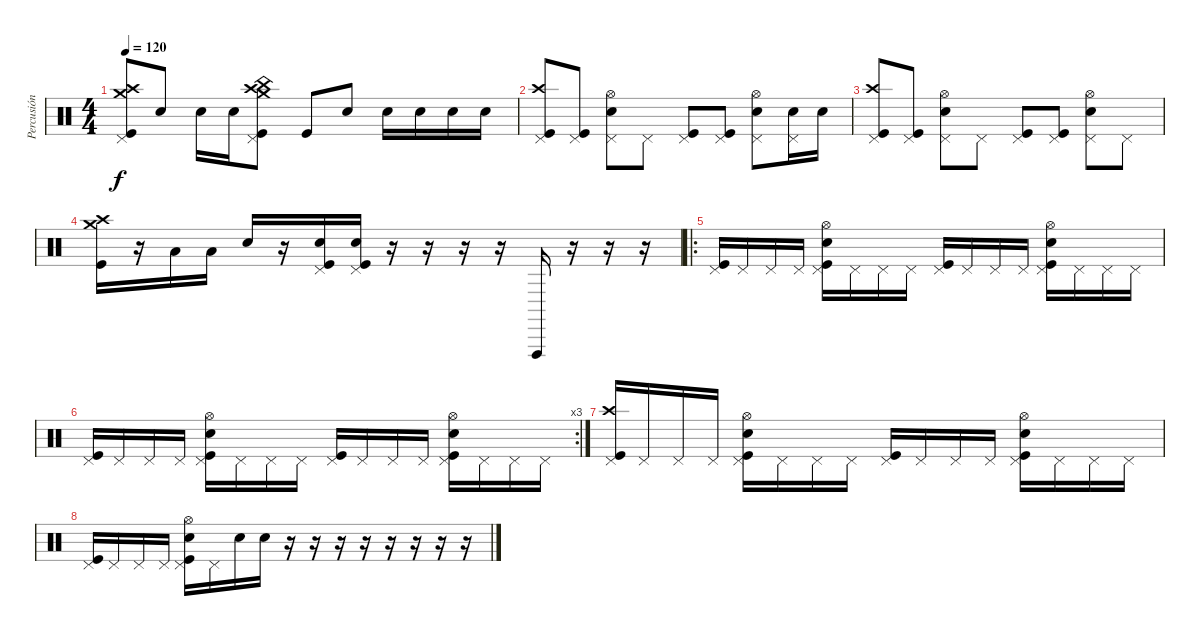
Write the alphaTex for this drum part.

\track ("Percusión" "Percusión") {instrument percussion}
\staff {score}
\articulation defaults
\ts (4 4)
\tempo 120
\clef neutral
\ks c
("Pedal Hi-Hat (hit)" "Crash high (hit)" "Crash medium (hit)" "Kick (hit)").8{dy f volume 10} "Snare (hit) 2".8 "Snare (hit) 2".16 "Snare (hit) 2".16 ("Pedal Hi-Hat (hit)" "Crash medium (hit)" "China (hit)" "Crash high (hit)" "Kick (hit)").8 "Kick (hit)".8 "Snare (hit) 2".8 "Snare (hit) 2".16 "Snare (hit) 2".16 "Snare (hit) 2".16 "Snare (hit) 2".16 |
("Pedal Hi-Hat (hit)" "Crash high (hit)" "Kick (hit)").8 ("Pedal Hi-Hat (hit)" "Kick (hit)").8 ("Pedal Hi-Hat (hit)" "Hi-Hat (open)" "Snare (hit) 2").8 "Pedal Hi-Hat (hit)".8 ("Pedal Hi-Hat (hit)" "Kick (hit)").8 ("Pedal Hi-Hat (hit)" "Kick (hit)").8 ("Pedal Hi-Hat (hit)" "Hi-Hat (open)" "Snare (hit) 2").8 ("Pedal Hi-Hat (hit)" "Snare (hit) 2").16 "Snare (hit) 2".16 |
("Pedal Hi-Hat (hit)" "Crash high (hit)" "Kick (hit)").8 ("Pedal Hi-Hat (hit)" "Kick (hit)").8 ("Pedal Hi-Hat (hit)" "Hi-Hat (open)" "Snare (hit) 2").8 "Pedal Hi-Hat (hit)".8 ("Pedal Hi-Hat (hit)" "Kick (hit)").8 ("Pedal Hi-Hat (hit)" "Kick (hit)").8 ("Pedal Hi-Hat (hit)" "Hi-Hat (open)" "Snare (hit) 2").8 "Pedal Hi-Hat (hit)".8 |
("Crash high (hit)" "Crash medium (hit)" "Kick (hit)").16 r.16 "Low Tom (hit)".16 "Low Tom (hit)".16 "Snare (hit) 2".16 r.16 ("Pedal Hi-Hat (hit)" "Snare (hit) 2" "Kick (hit)").16 ("Pedal Hi-Hat (hit)" "Snare (hit) 2" "Kick (hit)").16 r.16 r.16 r.16 r.16 "Vibraslap (hit)".16 r.16 r.16 r.16 |
\ro
("Pedal Hi-Hat (hit)" "Kick (hit)").16 "Pedal Hi-Hat (hit)".16 "Pedal Hi-Hat (hit)".16 "Pedal Hi-Hat (hit)".16 ("Pedal Hi-Hat (hit)" "Hi-Hat (open)" "Snare (hit) 2" "Kick (hit)").16 "Pedal Hi-Hat (hit)".16 "Pedal Hi-Hat (hit)".16 "Pedal Hi-Hat (hit)".16 ("Pedal Hi-Hat (hit)" "Kick (hit)").16 "Pedal Hi-Hat (hit)".16 "Pedal Hi-Hat (hit)".16 "Pedal Hi-Hat (hit)".16 ("Pedal Hi-Hat (hit)" "Hi-Hat (open)" "Snare (hit) 2" "Kick (hit)").16 "Pedal Hi-Hat (hit)".16 "Pedal Hi-Hat (hit)".16 "Pedal Hi-Hat (hit)".16 |
\rc 3
("Pedal Hi-Hat (hit)" "Kick (hit)").16 "Pedal Hi-Hat (hit)".16 "Pedal Hi-Hat (hit)".16 "Pedal Hi-Hat (hit)".16 ("Pedal Hi-Hat (hit)" "Hi-Hat (open)" "Snare (hit) 2" "Kick (hit)").16 "Pedal Hi-Hat (hit)".16 "Pedal Hi-Hat (hit)".16 "Pedal Hi-Hat (hit)".16 ("Pedal Hi-Hat (hit)" "Kick (hit)").16 "Pedal Hi-Hat (hit)".16 "Pedal Hi-Hat (hit)".16 "Pedal Hi-Hat (hit)".16 ("Pedal Hi-Hat (hit)" "Hi-Hat (open)" "Snare (hit) 2" "Kick (hit)").16 "Pedal Hi-Hat (hit)".16 "Pedal Hi-Hat (hit)".16 "Pedal Hi-Hat (hit)".16 |
("Pedal Hi-Hat (hit)" "Crash high (hit)" "Kick (hit)").16 "Pedal Hi-Hat (hit)".16 "Pedal Hi-Hat (hit)".16 "Pedal Hi-Hat (hit)".16 ("Pedal Hi-Hat (hit)" "Hi-Hat (open)" "Snare (hit) 2" "Kick (hit)").16 "Pedal Hi-Hat (hit)".16 "Pedal Hi-Hat (hit)".16 "Pedal Hi-Hat (hit)".16 ("Pedal Hi-Hat (hit)" "Kick (hit)").16 "Pedal Hi-Hat (hit)".16 "Pedal Hi-Hat (hit)".16 "Pedal Hi-Hat (hit)".16 ("Pedal Hi-Hat (hit)" "Hi-Hat (open)" "Snare (hit) 2" "Kick (hit)").16 "Pedal Hi-Hat (hit)".16 "Pedal Hi-Hat (hit)".16 "Pedal Hi-Hat (hit)".16 |
("Pedal Hi-Hat (hit)" "Kick (hit)").16 "Pedal Hi-Hat (hit)".16 "Pedal Hi-Hat (hit)".16 "Pedal Hi-Hat (hit)".16 ("Pedal Hi-Hat (hit)" "Hi-Hat (open)" "Snare (hit) 2" "Kick (hit)").16 "Pedal Hi-Hat (hit)".16 "Snare (hit) 2".16 "Snare (hit) 2".16 r.16 r.16 r.16 r.16 r.16 r.16 r.16 r.16
